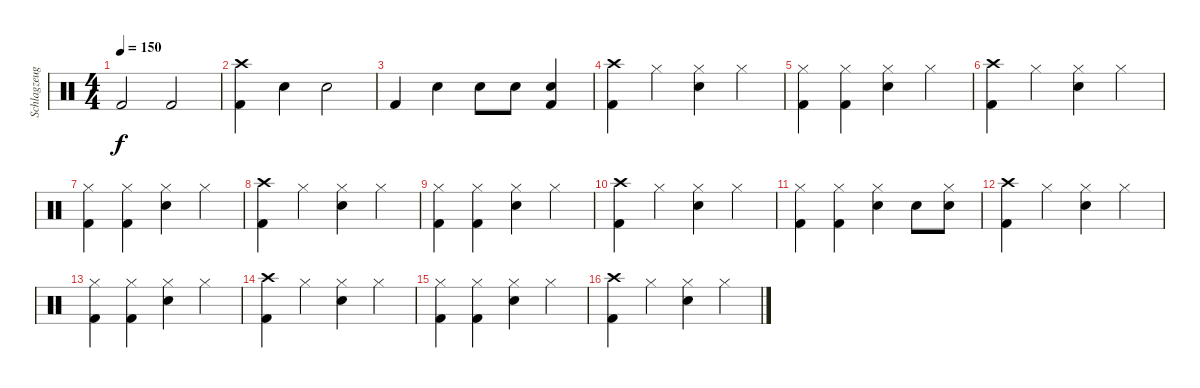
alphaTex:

\track ("Schlagzeug" "Schlagzeug") {instrument percussion}
\staff {score}
\articulation defaults
\ts (4 4)
\tempo 150
\clef neutral
\ks c "Kick (hit) 2".2{dy f} "Kick (hit) 2".2
|
("Crash high (hit)" "Kick (hit) 2").4 "Snare (hit) 2".4 "Snare (hit) 2".2 |
"Kick (hit) 2".4 "Snare (hit) 2".4 "Snare (hit) 2".8 "Snare (hit) 2".8 ("Snare (hit) 2" "Kick (hit) 2").4 |
("Crash high (hit)" "Kick (hit) 2").4 "Hi-Hat (closed)".4 ("Hi-Hat (closed)" "Snare (hit) 2").4 "Hi-Hat (closed)".4 |
("Hi-Hat (closed)" "Kick (hit) 2").4 ("Hi-Hat (closed)" "Kick (hit) 2").4 ("Hi-Hat (closed)" "Snare (hit) 2").4 "Hi-Hat (closed)".4 |
("Crash high (hit)" "Kick (hit) 2").4 "Hi-Hat (closed)".4 ("Hi-Hat (closed)" "Snare (hit) 2").4 "Hi-Hat (closed)".4 |
("Hi-Hat (closed)" "Kick (hit) 2").4 ("Hi-Hat (closed)" "Kick (hit) 2").4 ("Hi-Hat (closed)" "Snare (hit) 2").4 "Hi-Hat (closed)".4 |
("Crash high (hit)" "Kick (hit) 2").4 "Hi-Hat (closed)".4 ("Hi-Hat (closed)" "Snare (hit) 2").4 "Hi-Hat (closed)".4 |
("Hi-Hat (closed)" "Kick (hit) 2").4 ("Hi-Hat (closed)" "Kick (hit) 2").4 ("Hi-Hat (closed)" "Snare (hit) 2").4 "Hi-Hat (closed)".4 |
("Crash high (hit)" "Kick (hit) 2").4 "Hi-Hat (closed)".4 ("Hi-Hat (closed)" "Snare (hit) 2").4 "Hi-Hat (closed)".4 |
("Hi-Hat (closed)" "Kick (hit) 2").4 ("Hi-Hat (closed)" "Kick (hit) 2").4 ("Hi-Hat (closed)" "Snare (hit) 2").4 "Snare (hit) 2".8 ("Hi-Hat (closed)" "Snare (hit) 2").8 |
("Crash high (hit)" "Kick (hit) 2").4 "Hi-Hat (closed)".4 ("Hi-Hat (closed)" "Snare (hit) 2").4 "Hi-Hat (closed)".4 |
("Hi-Hat (closed)" "Kick (hit) 2").4 ("Hi-Hat (closed)" "Kick (hit) 2").4 ("Hi-Hat (closed)" "Snare (hit) 2").4 "Hi-Hat (closed)".4 |
("Crash high (hit)" "Kick (hit) 2").4 "Hi-Hat (closed)".4 ("Hi-Hat (closed)" "Snare (hit) 2").4 "Hi-Hat (closed)".4 |
("Hi-Hat (closed)" "Kick (hit) 2").4 ("Hi-Hat (closed)" "Kick (hit) 2").4 ("Hi-Hat (closed)" "Snare (hit) 2").4 "Hi-Hat (closed)".4 |
("Crash high (hit)" "Kick (hit) 2").4 "Hi-Hat (closed)".4 ("Hi-Hat (closed)" "Snare (hit) 2").4 "Hi-Hat (closed)".4
